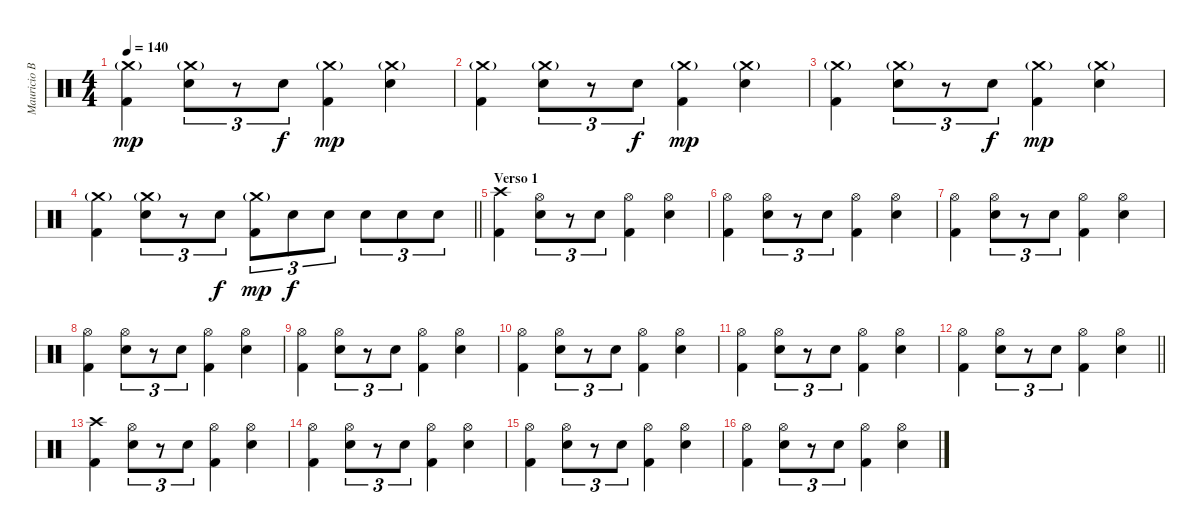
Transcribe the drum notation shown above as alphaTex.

\track ("Mauricio Basualto" "Mauricio B") {instrument percussion}
\staff {score}
\articulation defaults
\ts (4 4)
\tempo 140
\clef neutral
\ks c
("Crash medium (hit)"{g} "Kick (hit) 2").4{dy mp} ("Crash medium (hit)"{g} "Electric Snare (hit)").8{tu (3 2)} r.8{tu (3 2)} "Electric Snare (hit)".8{tu (3 2) dy f} ("Crash medium (hit)"{g} "Kick (hit) 2").4{dy mp} ("Crash medium (hit)"{g} "Electric Snare (hit)").4 |
("Crash medium (hit)"{g} "Kick (hit) 2").4 ("Crash medium (hit)"{g} "Electric Snare (hit)").8{tu (3 2)} r.8{tu (3 2)} "Electric Snare (hit)".8{tu (3 2) dy f} ("Crash medium (hit)"{g} "Kick (hit) 2").4{dy mp} ("Crash medium (hit)"{g} "Electric Snare (hit)").4 |
("Crash medium (hit)"{g} "Kick (hit) 2").4 ("Crash medium (hit)"{g} "Electric Snare (hit)").8{tu (3 2)} r.8{tu (3 2)} "Electric Snare (hit)".8{tu (3 2) dy f} ("Crash medium (hit)"{g} "Kick (hit) 2").4{dy mp} ("Crash medium (hit)"{g} "Electric Snare (hit)").4 |
\barLineRight lightlight
("Crash medium (hit)"{g} "Kick (hit) 2").4 ("Crash medium (hit)"{g} "Electric Snare (hit)").8{tu (3 2)} r.8{tu (3 2)} "Electric Snare (hit)".8{tu (3 2) dy f} ("Crash medium (hit)"{g} "Kick (hit) 2").8{tu (3 2) dy mp} "Electric Snare (hit)".8{tu (3 2) dy f} "Electric Snare (hit)".8{tu (3 2)} "Electric Snare (hit)".8{tu (3 2)} "Electric Snare (hit)".8{tu (3 2)} "Electric Snare (hit)".8{tu (3 2)} |
\section ("" "Verso 1")
("Crash high (hit)" "Kick (hit) 2").4 ("Hi-Hat (open)" "Electric Snare (hit)").8{tu (3 2)} r.8{tu (3 2)} "Electric Snare (hit)".8{tu (3 2)} ("Hi-Hat (open)" "Kick (hit) 2").4 ("Hi-Hat (open)" "Electric Snare (hit)").4 |
("Hi-Hat (open)" "Kick (hit) 2").4 ("Hi-Hat (open)" "Electric Snare (hit)").8{tu (3 2)} r.8{tu (3 2)} "Electric Snare (hit)".8{tu (3 2)} ("Hi-Hat (open)" "Kick (hit) 2").4 ("Hi-Hat (open)" "Electric Snare (hit)").4 |
("Hi-Hat (open)" "Kick (hit) 2").4 ("Hi-Hat (open)" "Electric Snare (hit)").8{tu (3 2)} r.8{tu (3 2)} "Electric Snare (hit)".8{tu (3 2)} ("Hi-Hat (open)" "Kick (hit) 2").4 ("Hi-Hat (open)" "Electric Snare (hit)").4 |
("Hi-Hat (open)" "Kick (hit) 2").4 ("Hi-Hat (open)" "Electric Snare (hit)").8{tu (3 2)} r.8{tu (3 2)} "Electric Snare (hit)".8{tu (3 2)} ("Hi-Hat (open)" "Kick (hit) 2").4 ("Hi-Hat (open)" "Electric Snare (hit)").4 |
("Hi-Hat (open)" "Kick (hit) 2").4 ("Hi-Hat (open)" "Electric Snare (hit)").8{tu (3 2)} r.8{tu (3 2)} "Electric Snare (hit)".8{tu (3 2)} ("Hi-Hat (open)" "Kick (hit) 2").4 ("Hi-Hat (open)" "Electric Snare (hit)").4 |
("Hi-Hat (open)" "Kick (hit) 2").4 ("Hi-Hat (open)" "Electric Snare (hit)").8{tu (3 2)} r.8{tu (3 2)} "Electric Snare (hit)".8{tu (3 2)} ("Hi-Hat (open)" "Kick (hit) 2").4 ("Hi-Hat (open)" "Electric Snare (hit)").4 |
("Hi-Hat (open)" "Kick (hit) 2").4 ("Hi-Hat (open)" "Electric Snare (hit)").8{tu (3 2)} r.8{tu (3 2)} "Electric Snare (hit)".8{tu (3 2)} ("Hi-Hat (open)" "Kick (hit) 2").4 ("Hi-Hat (open)" "Electric Snare (hit)").4 |
\barLineRight lightlight
("Hi-Hat (open)" "Kick (hit) 2").4 ("Hi-Hat (open)" "Electric Snare (hit)").8{tu (3 2)} r.8{tu (3 2)} "Electric Snare (hit)".8{tu (3 2)} ("Hi-Hat (open)" "Kick (hit) 2").4 ("Hi-Hat (open)" "Electric Snare (hit)").4 |
("Crash high (hit)" "Kick (hit) 2").4 ("Hi-Hat (open)" "Electric Snare (hit)").8{tu (3 2)} r.8{tu (3 2)} "Electric Snare (hit)".8{tu (3 2)} ("Hi-Hat (open)" "Kick (hit) 2").4 ("Hi-Hat (open)" "Electric Snare (hit)").4 |
("Hi-Hat (open)" "Kick (hit) 2").4 ("Hi-Hat (open)" "Electric Snare (hit)").8{tu (3 2)} r.8{tu (3 2)} "Electric Snare (hit)".8{tu (3 2)} ("Hi-Hat (open)" "Kick (hit) 2").4 ("Hi-Hat (open)" "Electric Snare (hit)").4 |
("Hi-Hat (open)" "Kick (hit) 2").4 ("Hi-Hat (open)" "Electric Snare (hit)").8{tu (3 2)} r.8{tu (3 2)} "Electric Snare (hit)".8{tu (3 2)} ("Hi-Hat (open)" "Kick (hit) 2").4 ("Hi-Hat (open)" "Electric Snare (hit)").4 |
("Hi-Hat (open)" "Kick (hit) 2").4 ("Hi-Hat (open)" "Electric Snare (hit)").8{tu (3 2)} r.8{tu (3 2)} "Electric Snare (hit)".8{tu (3 2)} ("Hi-Hat (open)" "Kick (hit) 2").4 ("Hi-Hat (open)" "Electric Snare (hit)").4
